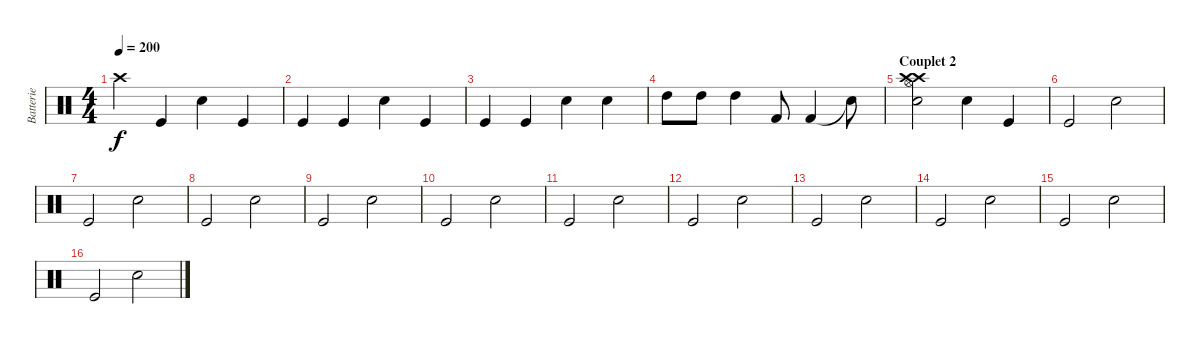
\track ("Batterie" "Batterie") {instrument percussion}
\staff {score}
\articulation defaults
\ts (4 4)
\tempo 200
\clef neutral
\ks c "Crash high (hit)".4{dy f} "Kick (hit)".4 "Electric Snare (hit)".4 "Kick (hit)".4
|
"Kick (hit)".4 "Kick (hit)".4 "Electric Snare (hit)".4 "Kick (hit)".4 |
"Kick (hit)".4 "Kick (hit)".4 "Electric Snare (hit)".4 "Electric Snare (hit)".4 |
"High Tom (hit)".8 "High Tom (hit)".8 "High Tom (hit)".4 "Kick (hit) 2".8 "Kick (hit) 2".4 "Snare (hit)"{t}.8 |
\section ("" "Couplet 2")
("Electric Snare (hit)" "Crash high (hit)" "Crash high (hit)" "Hi-Hat (open)").2 "Electric Snare (hit)".4 "Kick (hit)".4 |
"Kick (hit)".2 "Electric Snare (hit)".2 |
"Kick (hit)".2 "Electric Snare (hit)".2 |
"Kick (hit)".2 "Electric Snare (hit)".2 |
"Kick (hit)".2 "Electric Snare (hit)".2 |
"Kick (hit)".2 "Electric Snare (hit)".2 |
"Kick (hit)".2 "Electric Snare (hit)".2 |
"Kick (hit)".2 "Electric Snare (hit)".2 |
"Kick (hit)".2 "Electric Snare (hit)".2 |
"Kick (hit)".2 "Electric Snare (hit)".2 |
"Kick (hit)".2 "Electric Snare (hit)".2 |
"Kick (hit)".2 "Electric Snare (hit)".2
